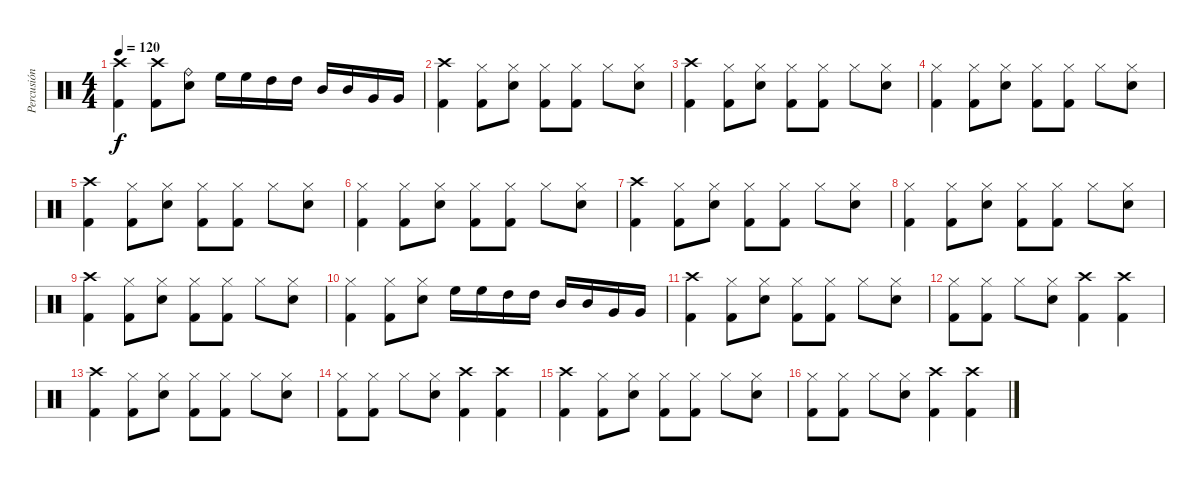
\track ("Percusión" "Percusión") {instrument percussion}
\staff {score}
\articulation defaults
\ts (4 4)
\tempo 120
\clef neutral
\ks c
("Crash high (hit)" "Kick (hit) 2").4{dy f} ("Crash high (hit)" "Kick (hit) 2").8 ("Ride (bell)" "Snare (hit) 2").8 "High Floor Tom (hit)".16 "High Floor Tom (hit)".16 "High Tom (hit)".16 "High Tom (hit)".16 "Mid Tom (hit)".16 "Mid Tom (hit)".16 "Very Low Tom (hit)".16 "Very Low Tom (hit)".16 |
("Crash high (hit)" "Kick (hit) 2").4 ("Hi-Hat (closed)" "Kick (hit) 2").8 ("Hi-Hat (closed)" "Snare (hit) 2").8 ("Hi-Hat (closed)" "Kick (hit) 2").8 ("Hi-Hat (closed)" "Kick (hit) 2").8 "Hi-Hat (closed)".8 ("Hi-Hat (closed)" "Snare (hit) 2").8 |
("Crash high (hit)" "Kick (hit) 2").4 ("Hi-Hat (closed)" "Kick (hit) 2").8 ("Hi-Hat (closed)" "Snare (hit) 2").8 ("Hi-Hat (closed)" "Kick (hit) 2").8 ("Hi-Hat (closed)" "Kick (hit) 2").8 "Hi-Hat (closed)".8 ("Hi-Hat (closed)" "Snare (hit) 2").8 |
("Hi-Hat (closed)" "Kick (hit) 2").4 ("Hi-Hat (closed)" "Kick (hit) 2").8 ("Hi-Hat (closed)" "Snare (hit) 2").8 ("Hi-Hat (closed)" "Kick (hit) 2").8 ("Hi-Hat (closed)" "Kick (hit) 2").8 "Hi-Hat (closed)".8 ("Hi-Hat (closed)" "Snare (hit) 2").8 |
("Crash high (hit)" "Kick (hit) 2").4 ("Hi-Hat (closed)" "Kick (hit) 2").8 ("Hi-Hat (closed)" "Snare (hit) 2").8 ("Hi-Hat (closed)" "Kick (hit) 2").8 ("Hi-Hat (closed)" "Kick (hit) 2").8 "Hi-Hat (closed)".8 ("Hi-Hat (closed)" "Snare (hit) 2").8 |
("Hi-Hat (closed)" "Kick (hit) 2").4 ("Hi-Hat (closed)" "Kick (hit) 2").8 ("Hi-Hat (closed)" "Snare (hit) 2").8 ("Hi-Hat (closed)" "Kick (hit) 2").8 ("Hi-Hat (closed)" "Kick (hit) 2").8 "Hi-Hat (closed)".8 ("Hi-Hat (closed)" "Snare (hit) 2").8 |
("Crash high (hit)" "Kick (hit) 2").4 ("Hi-Hat (closed)" "Kick (hit) 2").8 ("Hi-Hat (closed)" "Snare (hit) 2").8 ("Hi-Hat (closed)" "Kick (hit) 2").8 ("Hi-Hat (closed)" "Kick (hit) 2").8 "Hi-Hat (closed)".8 ("Hi-Hat (closed)" "Snare (hit) 2").8 |
("Hi-Hat (closed)" "Kick (hit) 2").4 ("Hi-Hat (closed)" "Kick (hit) 2").8 ("Hi-Hat (closed)" "Snare (hit) 2").8 ("Hi-Hat (closed)" "Kick (hit) 2").8 ("Hi-Hat (closed)" "Kick (hit) 2").8 "Hi-Hat (closed)".8 ("Hi-Hat (closed)" "Snare (hit) 2").8 |
("Crash high (hit)" "Kick (hit) 2").4 ("Hi-Hat (closed)" "Kick (hit) 2").8 ("Hi-Hat (closed)" "Snare (hit) 2").8 ("Hi-Hat (closed)" "Kick (hit) 2").8 ("Hi-Hat (closed)" "Kick (hit) 2").8 "Hi-Hat (closed)".8 ("Hi-Hat (closed)" "Snare (hit) 2").8 |
("Hi-Hat (closed)" "Kick (hit) 2").4 ("Hi-Hat (closed)" "Kick (hit) 2").8 ("Hi-Hat (closed)" "Snare (hit) 2").8 "High Floor Tom (hit)".16 "High Floor Tom (hit)".16 "High Tom (hit)".16 "High Tom (hit)".16 "Mid Tom (hit)".16 "Mid Tom (hit)".16 "Very Low Tom (hit)".16 "Very Low Tom (hit)".16 |
("Crash high (hit)" "Kick (hit) 2").4 ("Hi-Hat (closed)" "Kick (hit) 2").8 ("Hi-Hat (closed)" "Snare (hit) 2").8 ("Hi-Hat (closed)" "Kick (hit) 2").8 ("Hi-Hat (closed)" "Kick (hit) 2").8 "Hi-Hat (closed)".8 ("Hi-Hat (closed)" "Snare (hit) 2").8 |
("Hi-Hat (closed)" "Kick (hit) 2").8 ("Hi-Hat (closed)" "Kick (hit) 2").8 "Hi-Hat (closed)".8 ("Hi-Hat (closed)" "Snare (hit) 2").8 ("Crash high (hit)" "Kick (hit) 2").4 ("Crash high (hit)" "Kick (hit) 2").4 |
("Crash high (hit)" "Kick (hit) 2").4 ("Hi-Hat (closed)" "Kick (hit) 2").8 ("Hi-Hat (closed)" "Snare (hit) 2").8 ("Hi-Hat (closed)" "Kick (hit) 2").8 ("Hi-Hat (closed)" "Kick (hit) 2").8 "Hi-Hat (closed)".8 ("Hi-Hat (closed)" "Snare (hit) 2").8 |
("Hi-Hat (closed)" "Kick (hit) 2").8 ("Hi-Hat (closed)" "Kick (hit) 2").8 "Hi-Hat (closed)".8 ("Hi-Hat (closed)" "Snare (hit) 2").8 ("Crash high (hit)" "Kick (hit) 2").4 ("Crash high (hit)" "Kick (hit) 2").4 |
("Crash high (hit)" "Kick (hit) 2").4 ("Hi-Hat (closed)" "Kick (hit) 2").8 ("Hi-Hat (closed)" "Snare (hit) 2").8 ("Hi-Hat (closed)" "Kick (hit) 2").8 ("Hi-Hat (closed)" "Kick (hit) 2").8 "Hi-Hat (closed)".8 ("Hi-Hat (closed)" "Snare (hit) 2").8 |
("Hi-Hat (closed)" "Kick (hit) 2").8 ("Hi-Hat (closed)" "Kick (hit) 2").8 "Hi-Hat (closed)".8 ("Hi-Hat (closed)" "Snare (hit) 2").8 ("Crash high (hit)" "Kick (hit) 2").4 ("Crash high (hit)" "Kick (hit) 2").4
